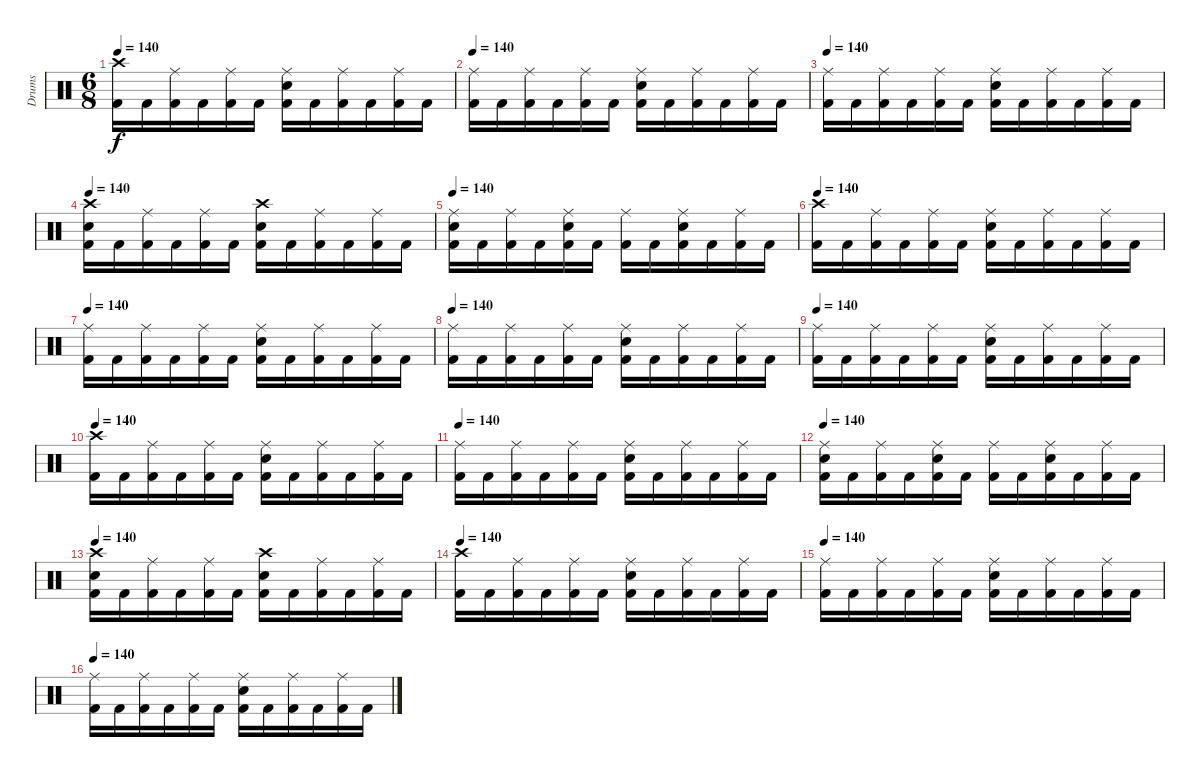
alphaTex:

\track ("Drums" "Drums") {instrument percussion}
\staff {score}
\articulation defaults
\ts (6 8)
\tempo 140
\clef neutral
\ks c
("Kick (hit) 2" "Crash high (hit)").16{dy f} "Kick (hit) 2".16 ("Kick (hit) 2" "Ride (middle)").16 "Kick (hit) 2".16 ("Kick (hit) 2" "Ride (middle)").16 "Kick (hit) 2".16 ("Kick (hit) 2" "Electric Snare (hit)" "Ride (middle)").16 "Kick (hit) 2".16 ("Kick (hit) 2" "Ride (middle)").16 "Kick (hit) 2".16 ("Kick (hit) 2" "Ride (middle)").16 "Kick (hit) 2".16 |
\tempo 140
("Kick (hit) 2" "Ride (middle)").16 "Kick (hit) 2".16 ("Kick (hit) 2" "Ride (middle)").16 "Kick (hit) 2".16 ("Kick (hit) 2" "Ride (middle)").16 "Kick (hit) 2".16 ("Kick (hit) 2" "Electric Snare (hit)" "Ride (middle)").16 "Kick (hit) 2".16 ("Kick (hit) 2" "Ride (middle)").16 "Kick (hit) 2".16 ("Kick (hit) 2" "Ride (middle)").16 "Kick (hit) 2".16 |
\tempo 140
("Kick (hit) 2" "Ride (middle)").16 "Kick (hit) 2".16 ("Kick (hit) 2" "Ride (middle)").16 "Kick (hit) 2".16 ("Kick (hit) 2" "Ride (middle)").16 "Kick (hit) 2".16 ("Kick (hit) 2" "Electric Snare (hit)" "Ride (middle)").16 "Kick (hit) 2".16 ("Kick (hit) 2" "Ride (middle)").16 "Kick (hit) 2".16 ("Kick (hit) 2" "Ride (middle)").16 "Kick (hit) 2".16 |
\tempo 140
("Kick (hit) 2" "Electric Snare (hit)" "Crash high (hit)").16 "Kick (hit) 2".16 ("Kick (hit) 2" "Ride (middle)").16 "Kick (hit) 2".16 ("Kick (hit) 2" "Ride (middle)").16 "Kick (hit) 2".16 ("Kick (hit) 2" "Electric Snare (hit)" "Crash high (hit)").16 "Kick (hit) 2".16 ("Kick (hit) 2" "Ride (middle)").16 "Kick (hit) 2".16 ("Kick (hit) 2" "Ride (middle)").16 "Kick (hit) 2".16 |
\tempo 140
("Kick (hit) 2" "Electric Snare (hit)" "Ride (middle)").16 "Kick (hit) 2".16 ("Kick (hit) 2" "Ride (middle)").16 "Kick (hit) 2".16 ("Kick (hit) 2" "Electric Snare (hit)" "Ride (middle)").16 "Kick (hit) 2".16 ("Kick (hit) 2" "Ride (middle)").16 "Kick (hit) 2".16 ("Kick (hit) 2" "Electric Snare (hit)" "Ride (middle)").16 "Kick (hit) 2".16 ("Kick (hit) 2" "Ride (middle)").16 "Kick (hit) 2".16 |
\tempo 140
("Kick (hit) 2" "Crash high (hit)").16 "Kick (hit) 2".16 ("Kick (hit) 2" "Ride (middle)").16 "Kick (hit) 2".16 ("Kick (hit) 2" "Ride (middle)").16 "Kick (hit) 2".16 ("Kick (hit) 2" "Electric Snare (hit)" "Ride (middle)").16 "Kick (hit) 2".16 ("Kick (hit) 2" "Ride (middle)").16 "Kick (hit) 2".16 ("Kick (hit) 2" "Ride (middle)").16 "Kick (hit) 2".16 |
\tempo 140
("Kick (hit) 2" "Ride (middle)").16 "Kick (hit) 2".16 ("Kick (hit) 2" "Ride (middle)").16 "Kick (hit) 2".16 ("Kick (hit) 2" "Ride (middle)").16 "Kick (hit) 2".16 ("Kick (hit) 2" "Electric Snare (hit)" "Ride (middle)").16 "Kick (hit) 2".16 ("Kick (hit) 2" "Ride (middle)").16 "Kick (hit) 2".16 ("Kick (hit) 2" "Ride (middle)").16 "Kick (hit) 2".16 |
\tempo 140
("Kick (hit) 2" "Ride (middle)").16 "Kick (hit) 2".16 ("Kick (hit) 2" "Ride (middle)").16 "Kick (hit) 2".16 ("Kick (hit) 2" "Ride (middle)").16 "Kick (hit) 2".16 ("Kick (hit) 2" "Electric Snare (hit)" "Ride (middle)").16 "Kick (hit) 2".16 ("Kick (hit) 2" "Ride (middle)").16 "Kick (hit) 2".16 ("Kick (hit) 2" "Ride (middle)").16 "Kick (hit) 2".16 |
\tempo 140
("Kick (hit) 2" "Ride (middle)").16 "Kick (hit) 2".16 ("Kick (hit) 2" "Ride (middle)").16 "Kick (hit) 2".16 ("Kick (hit) 2" "Ride (middle)").16 "Kick (hit) 2".16 ("Kick (hit) 2" "Electric Snare (hit)" "Ride (middle)").16 "Kick (hit) 2".16 ("Kick (hit) 2" "Ride (middle)").16 "Kick (hit) 2".16 ("Kick (hit) 2" "Ride (middle)").16 "Kick (hit) 2".16 |
\tempo 140
("Kick (hit) 2" "Crash high (hit)").16 "Kick (hit) 2".16 ("Kick (hit) 2" "Ride (middle)").16 "Kick (hit) 2".16 ("Kick (hit) 2" "Ride (middle)").16 "Kick (hit) 2".16 ("Kick (hit) 2" "Electric Snare (hit)" "Ride (middle)").16 "Kick (hit) 2".16 ("Kick (hit) 2" "Ride (middle)").16 "Kick (hit) 2".16 ("Kick (hit) 2" "Ride (middle)").16 "Kick (hit) 2".16 |
\tempo 140
("Kick (hit) 2" "Ride (middle)").16 "Kick (hit) 2".16 ("Kick (hit) 2" "Ride (middle)").16 "Kick (hit) 2".16 ("Kick (hit) 2" "Ride (middle)").16 "Kick (hit) 2".16 ("Kick (hit) 2" "Electric Snare (hit)" "Ride (middle)").16 "Kick (hit) 2".16 ("Kick (hit) 2" "Ride (middle)").16 "Kick (hit) 2".16 ("Kick (hit) 2" "Ride (middle)").16 "Kick (hit) 2".16 |
\tempo 140
("Kick (hit) 2" "Electric Snare (hit)" "Ride (middle)").16 "Kick (hit) 2".16 ("Kick (hit) 2" "Ride (middle)").16 "Kick (hit) 2".16 ("Kick (hit) 2" "Electric Snare (hit)" "Ride (middle)").16 "Kick (hit) 2".16 ("Kick (hit) 2" "Ride (middle)").16 "Kick (hit) 2".16 ("Kick (hit) 2" "Electric Snare (hit)" "Ride (middle)").16 "Kick (hit) 2".16 ("Kick (hit) 2" "Ride (middle)").16 "Kick (hit) 2".16 |
\tempo 140
("Kick (hit) 2" "Electric Snare (hit)" "Crash high (hit)").16 "Kick (hit) 2".16 ("Kick (hit) 2" "Ride (middle)").16 "Kick (hit) 2".16 ("Kick (hit) 2" "Ride (middle)").16 "Kick (hit) 2".16 ("Kick (hit) 2" "Electric Snare (hit)" "Crash high (hit)").16 "Kick (hit) 2".16 ("Kick (hit) 2" "Ride (middle)").16 "Kick (hit) 2".16 ("Kick (hit) 2" "Ride (middle)").16 "Kick (hit) 2".16 |
\tempo 140
("Kick (hit) 2" "Crash high (hit)").16 "Kick (hit) 2".16 ("Kick (hit) 2" "Ride (middle)").16 "Kick (hit) 2".16 ("Kick (hit) 2" "Ride (middle)").16 "Kick (hit) 2".16 ("Kick (hit) 2" "Electric Snare (hit)" "Ride (middle)").16 "Kick (hit) 2".16 ("Kick (hit) 2" "Ride (middle)").16 "Kick (hit) 2".16 ("Kick (hit) 2" "Ride (middle)").16 "Kick (hit) 2".16 |
\tempo 140
("Kick (hit) 2" "Ride (middle)").16 "Kick (hit) 2".16 ("Kick (hit) 2" "Ride (middle)").16 "Kick (hit) 2".16 ("Kick (hit) 2" "Ride (middle)").16 "Kick (hit) 2".16 ("Kick (hit) 2" "Electric Snare (hit)" "Ride (middle)").16 "Kick (hit) 2".16 ("Kick (hit) 2" "Ride (middle)").16 "Kick (hit) 2".16 ("Kick (hit) 2" "Ride (middle)").16 "Kick (hit) 2".16 |
\tempo 140
("Kick (hit) 2" "Ride (middle)").16 "Kick (hit) 2".16 ("Kick (hit) 2" "Ride (middle)").16 "Kick (hit) 2".16 ("Kick (hit) 2" "Ride (middle)").16 "Kick (hit) 2".16 ("Kick (hit) 2" "Electric Snare (hit)" "Ride (middle)").16 "Kick (hit) 2".16 ("Kick (hit) 2" "Ride (middle)").16 "Kick (hit) 2".16 ("Kick (hit) 2" "Ride (middle)").16 "Kick (hit) 2".16
